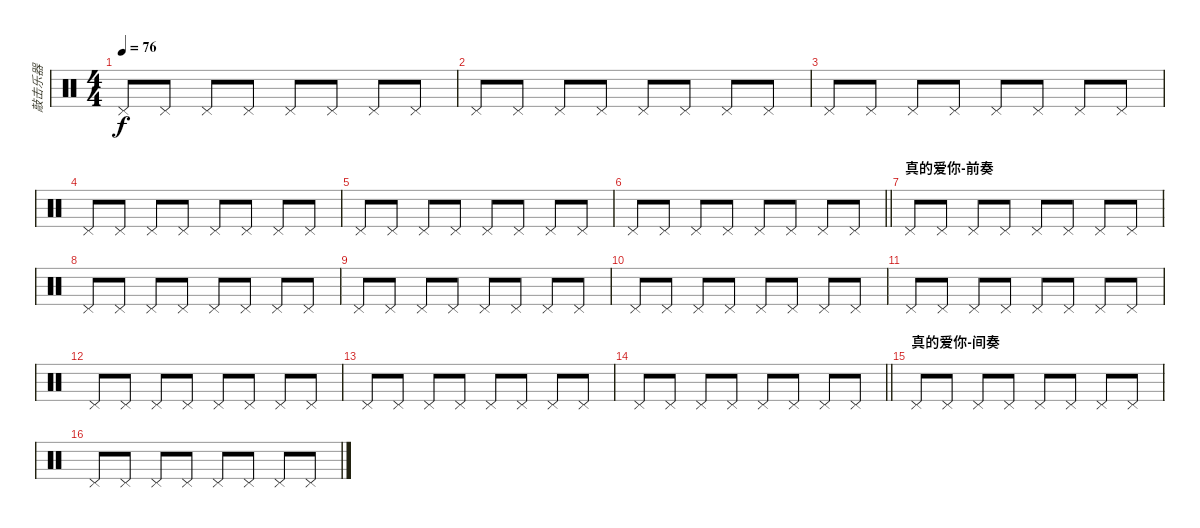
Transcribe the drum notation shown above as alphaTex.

\track ("敲击乐器" "敲击乐器") {instrument percussion}
\staff {score}
\articulation defaults
\ts (4 4)
\tempo 76
\clef neutral
\ks c "Pedal Hi-Hat (hit)".8{dy f} "Pedal Hi-Hat (hit)".8 "Pedal Hi-Hat (hit)".8 "Pedal Hi-Hat (hit)".8 "Pedal Hi-Hat (hit)".8 "Pedal Hi-Hat (hit)".8 "Pedal Hi-Hat (hit)".8 "Pedal Hi-Hat (hit)".8
|
"Pedal Hi-Hat (hit)".8 "Pedal Hi-Hat (hit)".8 "Pedal Hi-Hat (hit)".8 "Pedal Hi-Hat (hit)".8 "Pedal Hi-Hat (hit)".8 "Pedal Hi-Hat (hit)".8 "Pedal Hi-Hat (hit)".8 "Pedal Hi-Hat (hit)".8 |
"Pedal Hi-Hat (hit)".8 "Pedal Hi-Hat (hit)".8 "Pedal Hi-Hat (hit)".8 "Pedal Hi-Hat (hit)".8 "Pedal Hi-Hat (hit)".8 "Pedal Hi-Hat (hit)".8 "Pedal Hi-Hat (hit)".8 "Pedal Hi-Hat (hit)".8 |
"Pedal Hi-Hat (hit)".8 "Pedal Hi-Hat (hit)".8 "Pedal Hi-Hat (hit)".8 "Pedal Hi-Hat (hit)".8 "Pedal Hi-Hat (hit)".8 "Pedal Hi-Hat (hit)".8 "Pedal Hi-Hat (hit)".8 "Pedal Hi-Hat (hit)".8 |
"Pedal Hi-Hat (hit)".8 "Pedal Hi-Hat (hit)".8 "Pedal Hi-Hat (hit)".8 "Pedal Hi-Hat (hit)".8 "Pedal Hi-Hat (hit)".8 "Pedal Hi-Hat (hit)".8 "Pedal Hi-Hat (hit)".8 "Pedal Hi-Hat (hit)".8 |
\barLineRight lightlight "Pedal Hi-Hat (hit)".8 "Pedal Hi-Hat (hit)".8 "Pedal Hi-Hat (hit)".8 "Pedal Hi-Hat (hit)".8 "Pedal Hi-Hat (hit)".8 "Pedal Hi-Hat (hit)".8 "Pedal Hi-Hat (hit)".8 "Pedal Hi-Hat (hit)".8
|
\section ("" "真的爱你-前奏")
"Pedal Hi-Hat (hit)".8 "Pedal Hi-Hat (hit)".8 "Pedal Hi-Hat (hit)".8 "Pedal Hi-Hat (hit)".8 "Pedal Hi-Hat (hit)".8 "Pedal Hi-Hat (hit)".8 "Pedal Hi-Hat (hit)".8 "Pedal Hi-Hat (hit)".8 |
"Pedal Hi-Hat (hit)".8 "Pedal Hi-Hat (hit)".8 "Pedal Hi-Hat (hit)".8 "Pedal Hi-Hat (hit)".8 "Pedal Hi-Hat (hit)".8 "Pedal Hi-Hat (hit)".8 "Pedal Hi-Hat (hit)".8 "Pedal Hi-Hat (hit)".8 |
"Pedal Hi-Hat (hit)".8 "Pedal Hi-Hat (hit)".8 "Pedal Hi-Hat (hit)".8 "Pedal Hi-Hat (hit)".8 "Pedal Hi-Hat (hit)".8 "Pedal Hi-Hat (hit)".8 "Pedal Hi-Hat (hit)".8 "Pedal Hi-Hat (hit)".8 |
"Pedal Hi-Hat (hit)".8 "Pedal Hi-Hat (hit)".8 "Pedal Hi-Hat (hit)".8 "Pedal Hi-Hat (hit)".8 "Pedal Hi-Hat (hit)".8 "Pedal Hi-Hat (hit)".8 "Pedal Hi-Hat (hit)".8 "Pedal Hi-Hat (hit)".8 |
"Pedal Hi-Hat (hit)".8 "Pedal Hi-Hat (hit)".8 "Pedal Hi-Hat (hit)".8 "Pedal Hi-Hat (hit)".8 "Pedal Hi-Hat (hit)".8 "Pedal Hi-Hat (hit)".8 "Pedal Hi-Hat (hit)".8 "Pedal Hi-Hat (hit)".8 |
"Pedal Hi-Hat (hit)".8 "Pedal Hi-Hat (hit)".8 "Pedal Hi-Hat (hit)".8 "Pedal Hi-Hat (hit)".8 "Pedal Hi-Hat (hit)".8 "Pedal Hi-Hat (hit)".8 "Pedal Hi-Hat (hit)".8 "Pedal Hi-Hat (hit)".8 |
"Pedal Hi-Hat (hit)".8 "Pedal Hi-Hat (hit)".8 "Pedal Hi-Hat (hit)".8 "Pedal Hi-Hat (hit)".8 "Pedal Hi-Hat (hit)".8 "Pedal Hi-Hat (hit)".8 "Pedal Hi-Hat (hit)".8 "Pedal Hi-Hat (hit)".8 |
\barLineRight lightlight "Pedal Hi-Hat (hit)".8 "Pedal Hi-Hat (hit)".8 "Pedal Hi-Hat (hit)".8 "Pedal Hi-Hat (hit)".8 "Pedal Hi-Hat (hit)".8 "Pedal Hi-Hat (hit)".8 "Pedal Hi-Hat (hit)".8 "Pedal Hi-Hat (hit)".8
|
\section ("" "真的爱你-间奏")
"Pedal Hi-Hat (hit)".8 "Pedal Hi-Hat (hit)".8 "Pedal Hi-Hat (hit)".8 "Pedal Hi-Hat (hit)".8 "Pedal Hi-Hat (hit)".8 "Pedal Hi-Hat (hit)".8 "Pedal Hi-Hat (hit)".8 "Pedal Hi-Hat (hit)".8 |
"Pedal Hi-Hat (hit)".8 "Pedal Hi-Hat (hit)".8 "Pedal Hi-Hat (hit)".8 "Pedal Hi-Hat (hit)".8 "Pedal Hi-Hat (hit)".8 "Pedal Hi-Hat (hit)".8 "Pedal Hi-Hat (hit)".8 "Pedal Hi-Hat (hit)".8
